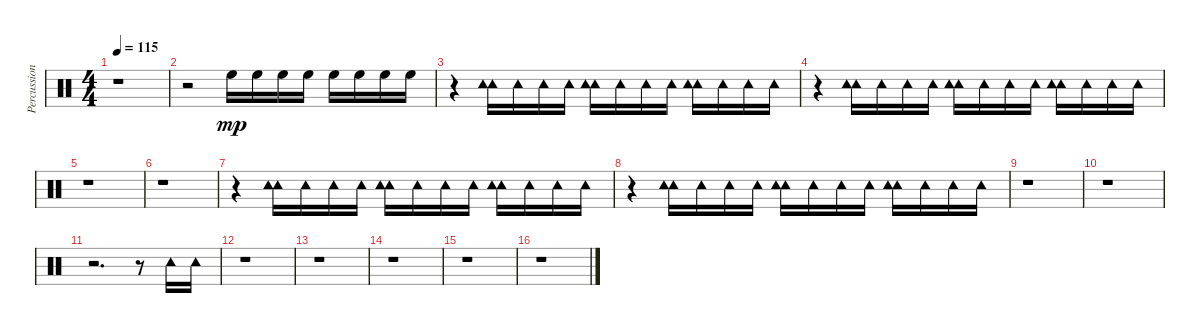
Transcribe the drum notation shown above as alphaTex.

\track ("Percussions" "Percussion") {instrument percussion}
\staff {score}
\articulation defaults
\ts (4 4)
\tempo 115
\clef neutral
\ks c
r.1{dy mp} |
r.2 "High Floor Tom (hit)".16 "High Floor Tom (hit)".16 "High Floor Tom (hit)".16 "High Floor Tom (hit)".16 "High Floor Tom (hit)".16 "High Floor Tom (hit)".16 "High Floor Tom (hit)".16 "High Floor Tom (hit)".16 |
r.4 ("Tambourine (hit)" "Tambourine (hit)").16 "Tambourine (hit)".16 "Tambourine (hit)".16 "Tambourine (hit)".16 ("Tambourine (hit)" "Tambourine (hit)").16 "Tambourine (hit)".16 "Tambourine (hit)".16 "Tambourine (hit)".16 ("Tambourine (hit)" "Tambourine (hit)").16 "Tambourine (hit)".16 "Tambourine (hit)".16 "Tambourine (hit)".16 |
r.4 ("Tambourine (hit)" "Tambourine (hit)").16 "Tambourine (hit)".16 "Tambourine (hit)".16 "Tambourine (hit)".16 ("Tambourine (hit)" "Tambourine (hit)").16 "Tambourine (hit)".16 "Tambourine (hit)".16 "Tambourine (hit)".16 ("Tambourine (hit)" "Tambourine (hit)").16 "Tambourine (hit)".16 "Tambourine (hit)".16 "Tambourine (hit)".16 |
r.1 |
r.1 |
r.4 ("Tambourine (hit)" "Tambourine (hit)").16 "Tambourine (hit)".16 "Tambourine (hit)".16 "Tambourine (hit)".16 ("Tambourine (hit)" "Tambourine (hit)").16 "Tambourine (hit)".16 "Tambourine (hit)".16 "Tambourine (hit)".16 ("Tambourine (hit)" "Tambourine (hit)").16 "Tambourine (hit)".16 "Tambourine (hit)".16 "Tambourine (hit)".16 |
r.4 ("Tambourine (hit)" "Tambourine (hit)").16 "Tambourine (hit)".16 "Tambourine (hit)".16 "Tambourine (hit)".16 ("Tambourine (hit)" "Tambourine (hit)").16 "Tambourine (hit)".16 "Tambourine (hit)".16 "Tambourine (hit)".16 ("Tambourine (hit)" "Tambourine (hit)").16 "Tambourine (hit)".16 "Tambourine (hit)".16 "Tambourine (hit)".16 |
r.1 |
r.1 |
r.2{d} r.8 "Tambourine (hit)".16 "Tambourine (hit)".16 |
r.1 |
r.1 |
r.1 |
r.1 |
r.1
